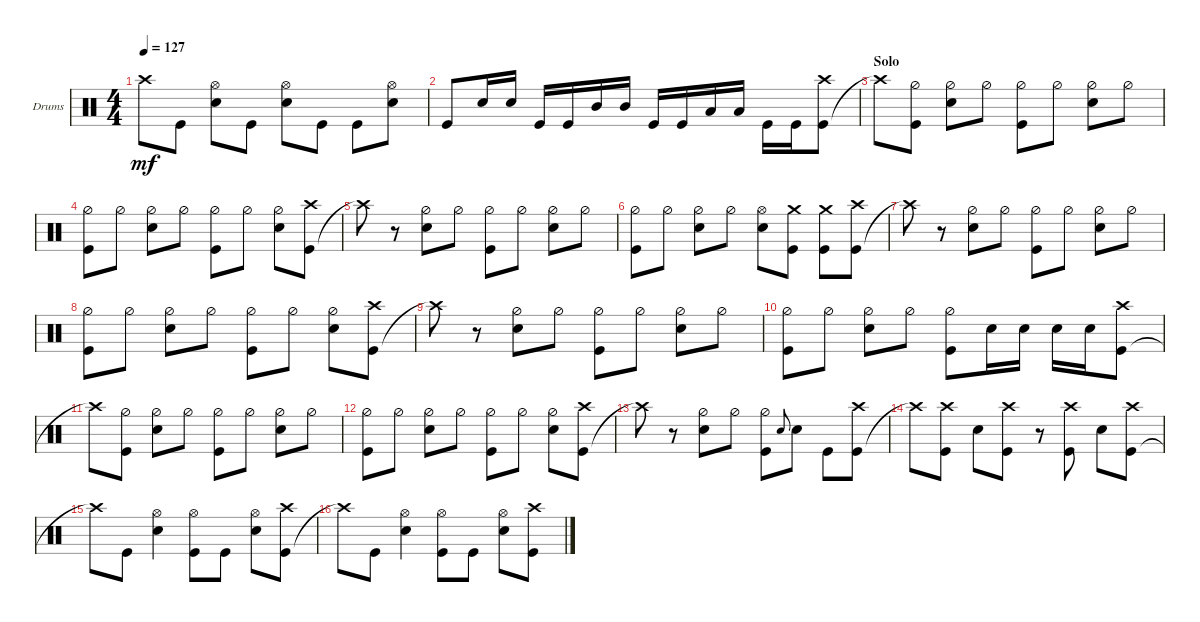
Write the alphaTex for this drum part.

\defaultSystemsLayout 4
\bracketExtendMode groupsimilarinstruments
\firstSystemTrackNameOrientation horizontal
\otherSystemsTrackNameOrientation horizontal
\track ("Drumkit" "Drums") {instrument percussion}
\staff {score}
\articulation defaults
\ts (4 4)
\tempo 127
\clef neutral
\scale
0.333333
\ks c "Crash high (hit)"{t}.8{dy mf} "Kick (hit)".8
("Snare (hit) 2" "Hi-Hat (open)").8 "Kick (hit)".8 ("Snare (hit) 2" "Hi-Hat (open)").8 "Kick (hit)".8 "Kick (hit)".8 ("Snare (hit) 2" "Hi-Hat (open)").8 |
\scale
0.333333 "Kick (hit)".8 "Snare (hit) 2".16 "Snare (hit) 2".16 "Kick (hit)".16 "Kick (hit)".16 "Mid Tom (hit)".16 "Mid Tom (hit)".16 "Kick (hit)".16 "Kick (hit)".16 "Low Tom (hit)".16 "Low Tom (hit)".16 "Kick (hit)".16 "Kick (hit)".16 ("Kick (hit)" "Crash high (hit)").8 |
\section ("" "Solo")
\scale
0.333333 "Crash high (hit)"{t}.8 ("Kick (hit)" "Hi-Hat (half)").8 ("Snare (hit) 2" "Hi-Hat (half)").8 "Hi-Hat (half)".8 ("Hi-Hat (half)" "Kick (hit)").8 "Hi-Hat (half)".8 ("Hi-Hat (half)" "Snare (hit) 2").8 "Hi-Hat (half)".8 |
\scale
0.333333 ("Hi-Hat (half)" "Kick (hit)").8 "Hi-Hat (half)".8 ("Hi-Hat (half)" "Snare (hit) 2").8 "Hi-Hat (half)".8 ("Hi-Hat (half)" "Kick (hit)").8 "Hi-Hat (half)".8 ("Hi-Hat (half)" "Snare (hit) 2").8 ("Kick (hit)" "Crash high (hit)").8 |
\scale
0.333333 "Crash high (hit)"{t}.8 r.8 ("Snare (hit) 2" "Hi-Hat (half)").8 "Hi-Hat (half)".8 ("Hi-Hat (half)" "Kick (hit)").8 "Hi-Hat (half)".8 ("Hi-Hat (half)" "Snare (hit) 2").8 "Hi-Hat (half)".8 |
\scale
0.333333 ("Hi-Hat (half)" "Kick (hit)").8 "Hi-Hat (half)".8 ("Hi-Hat (half)" "Snare (hit) 2").8 "Hi-Hat (half)".8 ("Snare (hit) 2" "Hi-Hat (open)").8 ("Kick (hit)" "Crash medium (hit)").8 ("Kick (hit)" "Crash medium (hit)").8 ("Kick (hit)" "Crash high (hit)").8 |
\scale
0.333333 "Crash high (hit)"{t}.8 r.8 ("Snare (hit) 2" "Hi-Hat (half)").8 "Hi-Hat (half)".8 ("Hi-Hat (half)" "Kick (hit)").8 "Hi-Hat (half)".8 ("Hi-Hat (half)" "Snare (hit) 2").8 "Hi-Hat (half)".8 |
\scale
0.333333 ("Hi-Hat (half)" "Kick (hit)").8 "Hi-Hat (half)".8 ("Hi-Hat (half)" "Snare (hit) 2").8 "Hi-Hat (half)".8 ("Hi-Hat (half)" "Kick (hit)").8 "Hi-Hat (half)".8 ("Hi-Hat (half)" "Snare (hit) 2").8 ("Kick (hit)" "Crash high (hit)").8 |
\scale
0.333333 "Crash high (hit)"{t}.8 r.8 ("Snare (hit) 2" "Hi-Hat (half)").8 "Hi-Hat (half)".8 ("Hi-Hat (half)" "Kick (hit)").8 "Hi-Hat (half)".8 ("Hi-Hat (half)" "Snare (hit) 2").8 "Hi-Hat (half)".8 |
\scale
0.333333 ("Hi-Hat (half)" "Kick (hit)").8 "Hi-Hat (half)".8 ("Hi-Hat (half)" "Snare (hit) 2").8 "Hi-Hat (half)".8 ("Hi-Hat (half)" "Kick (hit)").8 "Snare (hit) 2".16 "Snare (hit) 2".16 "Snare (hit) 2".16 "Snare (hit) 2".16 ("Kick (hit)" "Crash high (hit)").8 |
\scale
0.333333 "Crash high (hit)"{t}.8 ("Kick (hit)" "Hi-Hat (half)").8 ("Snare (hit) 2" "Hi-Hat (half)").8 "Hi-Hat (half)".8 ("Hi-Hat (half)" "Kick (hit)").8 "Hi-Hat (half)".8 ("Hi-Hat (half)" "Snare (hit) 2").8 "Hi-Hat (half)".8 |
\scale
0.333333 ("Hi-Hat (half)" "Kick (hit)").8 "Hi-Hat (half)".8 ("Hi-Hat (half)" "Snare (hit) 2").8 "Hi-Hat (half)".8 ("Hi-Hat (half)" "Kick (hit)").8 "Hi-Hat (half)".8 ("Hi-Hat (half)" "Snare (hit) 2").8 ("Kick (hit)" "Crash high (hit)").8 |
\scale
0.333333 "Crash high (hit)"{t}.8 r.8 ("Snare (hit) 2" "Hi-Hat (half)").8 "Hi-Hat (half)".8 ("Hi-Hat (half)" "Kick (hit)").8 "Snare (hit) 2".8{gr onbeat} "Snare (hit) 2".8 "Kick (hit)".8 ("Kick (hit)" "Crash high (hit)").8 |
\scale
0.333333 "Crash high (hit)"{t}.8 ("Kick (hit)" "Crash high (hit)").8 "Snare (hit) 2".8 ("Kick (hit)" "Crash high (hit)").8 r.8 ("Kick (hit)" "Crash high (hit)").8 "Snare (hit) 2".8 ("Kick (hit)" "Crash high (hit)").8 |
\scale
0.333333 "Crash high (hit)"{t}.8 "Kick (hit)".8 ("Snare (hit) 2" "Hi-Hat (open)").4 ("Kick (hit)" "Hi-Hat (open)").8 "Kick (hit)".8 ("Snare (hit) 2" "Hi-Hat (open)").8 ("Kick (hit)" "Crash high (hit)").8 |
\scale
0.333333 "Crash high (hit)"{t}.8 "Kick (hit)".8 ("Snare (hit) 2" "Hi-Hat (open)").4 ("Kick (hit)" "Hi-Hat (open)").8 "Kick (hit)".8 ("Snare (hit) 2" "Hi-Hat (open)").8 ("Kick (hit)" "Crash high (hit)").8
